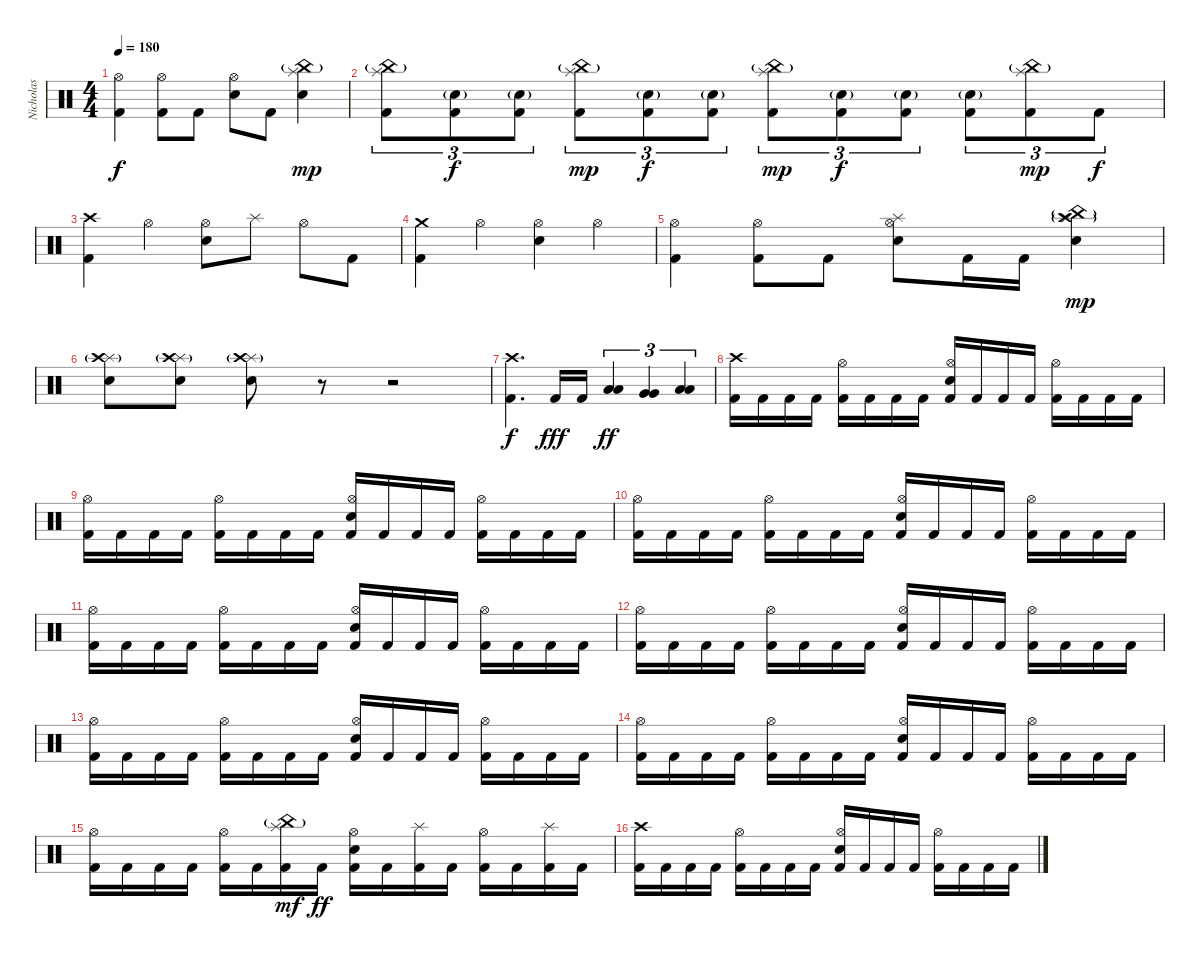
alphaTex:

\track ("Nicholas" "Nicholas") {instrument percussion}
\staff {score}
\articulation defaults
\ts (4 4)
\tempo 180
\clef neutral
\ks c
("Kick (hit) 2" "Hi-Hat (open)").4{dy f} ("Kick (hit) 2" "Hi-Hat (open)").8 "Kick (hit) 2".8 ("Electric Snare (hit)" "Hi-Hat (open)").8 "Kick (hit) 2".8 ("Electric Snare (hit)" "Splash (hit)" "China (hit)"{g}).4{dy mp} |
("Kick (hit) 2" "Splash (hit)" "China (hit)"{g}).8{tu (3 2)} ("Kick (hit) 2" "Electric Snare (hit)"{g}).8{tu (3 2) dy f} ("Kick (hit) 2" "Electric Snare (hit)"{g}).8{tu (3 2)} ("Kick (hit) 2" "Splash (hit)" "China (hit)"{g}).8{tu (3 2) dy mp} ("Kick (hit) 2" "Electric Snare (hit)"{g}).8{tu (3 2) dy f} ("Kick (hit) 2" "Electric Snare (hit)"{g}).8{tu (3 2)} ("Kick (hit) 2" "Splash (hit)" "China (hit)"{g}).8{tu (3 2) dy mp} ("Kick (hit) 2" "Electric Snare (hit)"{g}).8{tu (3 2) dy f} ("Kick (hit) 2" "Electric Snare (hit)"{g}).8{tu (3 2)} ("Kick (hit) 2" "Electric Snare (hit)"{g}).8{tu (3 2)} ("Kick (hit) 2" "Splash (hit)" "China (hit)"{g}).8{tu (3 2) dy mp} "Kick (hit) 2".8{tu (3 2) dy f} |
("Kick (hit) 2" "Crash high (hit)").4 "Hi-Hat (open)".4 ("Electric Snare (hit)" "Hi-Hat (open)").8 "Splash (hit)".8 "Hi-Hat (open)".8 "Kick (hit) 2".8 |
("Kick (hit) 2" "Crash medium (hit)").4 "Hi-Hat (open)".4 ("Electric Snare (hit)" "Hi-Hat (open)").4 "Hi-Hat (open)".4 |
("Kick (hit) 2" "Hi-Hat (open)").4 ("Kick (hit) 2" "Hi-Hat (open)").8 "Kick (hit) 2".8 ("Electric Snare (hit)" "Hi-Hat (open)" "Splash (hit)").8 "Kick (hit) 2".16 "Kick (hit) 2".16 ("Electric Snare (hit)" "Splash (hit)" "China (hit)"{g} "Crash high (hit)"{g}).4{dy mp} |
("Electric Snare (hit)" "Splash (hit)"{g} "Crash high (hit)"{g}).8 ("Electric Snare (hit)" "Splash (hit)"{g} "Crash high (hit)"{g}).8 ("Electric Snare (hit)" "Splash (hit)"{g} "Crash high (hit)"{g}).8 r.8 r.2 |
("Kick (hit) 2" "Crash high (hit)").4{d dy f} "Kick (hit) 2".16{dy fff} "Kick (hit) 2".16 ("Low Tom (hit)" "Low Tom (hit)").4{tu (3 2) dy ff} ("Very Low Tom (hit)" "Very Low Tom (hit)").4{tu (3 2)} ("Low Floor Tom (hit)" "Low Floor Tom (hit)").4{tu (3 2)} |
("Kick (hit) 2" "Crash high (hit)").16 "Kick (hit) 2".16 "Kick (hit) 2".16 "Kick (hit) 2".16 ("Kick (hit) 2" "Hi-Hat (open)").16 "Kick (hit) 2".16 "Kick (hit) 2".16 "Kick (hit) 2".16 ("Kick (hit) 2" "Electric Snare (hit)" "Hi-Hat (open)").16 "Kick (hit) 2".16 "Kick (hit) 2".16 "Kick (hit) 2".16 ("Kick (hit) 2" "Hi-Hat (open)").16 "Kick (hit) 2".16 "Kick (hit) 2".16 "Kick (hit) 2".16 |
("Kick (hit) 2" "Hi-Hat (open)").16 "Kick (hit) 2".16 "Kick (hit) 2".16 "Kick (hit) 2".16 ("Kick (hit) 2" "Hi-Hat (open)").16 "Kick (hit) 2".16 "Kick (hit) 2".16 "Kick (hit) 2".16 ("Kick (hit) 2" "Electric Snare (hit)" "Hi-Hat (open)").16 "Kick (hit) 2".16 "Kick (hit) 2".16 "Kick (hit) 2".16 ("Kick (hit) 2" "Hi-Hat (open)").16 "Kick (hit) 2".16 "Kick (hit) 2".16 "Kick (hit) 2".16 |
("Kick (hit) 2" "Hi-Hat (open)").16 "Kick (hit) 2".16 "Kick (hit) 2".16 "Kick (hit) 2".16 ("Kick (hit) 2" "Hi-Hat (open)").16 "Kick (hit) 2".16 "Kick (hit) 2".16 "Kick (hit) 2".16 ("Kick (hit) 2" "Electric Snare (hit)" "Hi-Hat (open)").16 "Kick (hit) 2".16 "Kick (hit) 2".16 "Kick (hit) 2".16 ("Kick (hit) 2" "Hi-Hat (open)").16 "Kick (hit) 2".16 "Kick (hit) 2".16 "Kick (hit) 2".16 |
("Kick (hit) 2" "Hi-Hat (open)").16 "Kick (hit) 2".16 "Kick (hit) 2".16 "Kick (hit) 2".16 ("Kick (hit) 2" "Hi-Hat (open)").16 "Kick (hit) 2".16 "Kick (hit) 2".16 "Kick (hit) 2".16 ("Kick (hit) 2" "Electric Snare (hit)" "Hi-Hat (open)").16 "Kick (hit) 2".16 "Kick (hit) 2".16 "Kick (hit) 2".16 ("Kick (hit) 2" "Hi-Hat (open)").16 "Kick (hit) 2".16 "Kick (hit) 2".16 "Kick (hit) 2".16 |
("Kick (hit) 2" "Hi-Hat (open)").16 "Kick (hit) 2".16 "Kick (hit) 2".16 "Kick (hit) 2".16 ("Kick (hit) 2" "Hi-Hat (open)").16 "Kick (hit) 2".16 "Kick (hit) 2".16 "Kick (hit) 2".16 ("Kick (hit) 2" "Electric Snare (hit)" "Hi-Hat (open)").16 "Kick (hit) 2".16 "Kick (hit) 2".16 "Kick (hit) 2".16 ("Kick (hit) 2" "Hi-Hat (open)").16 "Kick (hit) 2".16 "Kick (hit) 2".16 "Kick (hit) 2".16 |
("Kick (hit) 2" "Hi-Hat (open)").16 "Kick (hit) 2".16 "Kick (hit) 2".16 "Kick (hit) 2".16 ("Kick (hit) 2" "Hi-Hat (open)").16 "Kick (hit) 2".16 "Kick (hit) 2".16 "Kick (hit) 2".16 ("Kick (hit) 2" "Electric Snare (hit)" "Hi-Hat (open)").16 "Kick (hit) 2".16 "Kick (hit) 2".16 "Kick (hit) 2".16 ("Kick (hit) 2" "Hi-Hat (open)").16 "Kick (hit) 2".16 "Kick (hit) 2".16 "Kick (hit) 2".16 |
("Kick (hit) 2" "Hi-Hat (open)").16 "Kick (hit) 2".16 "Kick (hit) 2".16 "Kick (hit) 2".16 ("Kick (hit) 2" "Hi-Hat (open)").16 "Kick (hit) 2".16 "Kick (hit) 2".16 "Kick (hit) 2".16 ("Kick (hit) 2" "Electric Snare (hit)" "Hi-Hat (open)").16 "Kick (hit) 2".16 "Kick (hit) 2".16 "Kick (hit) 2".16 ("Kick (hit) 2" "Hi-Hat (open)").16 "Kick (hit) 2".16 "Kick (hit) 2".16 "Kick (hit) 2".16 |
("Kick (hit) 2" "Hi-Hat (open)").16 "Kick (hit) 2".16 "Kick (hit) 2".16 "Kick (hit) 2".16 ("Kick (hit) 2" "Hi-Hat (open)").16 "Kick (hit) 2".16 ("Kick (hit) 2" "Splash (hit)" "China (hit)"{g}).16{dy mf} "Kick (hit) 2".16{dy ff} ("Kick (hit) 2" "Electric Snare (hit)" "Hi-Hat (open)").16 "Kick (hit) 2".16 ("Kick (hit) 2" "Splash (hit)").16 "Kick (hit) 2".16 ("Kick (hit) 2" "Hi-Hat (open)").16 "Kick (hit) 2".16 ("Kick (hit) 2" "Splash (hit)").16 "Kick (hit) 2".16 |
("Kick (hit) 2" "Crash high (hit)").16 "Kick (hit) 2".16 "Kick (hit) 2".16 "Kick (hit) 2".16 ("Kick (hit) 2" "Hi-Hat (open)").16 "Kick (hit) 2".16 "Kick (hit) 2".16 "Kick (hit) 2".16 ("Kick (hit) 2" "Electric Snare (hit)" "Hi-Hat (open)").16 "Kick (hit) 2".16 "Kick (hit) 2".16 "Kick (hit) 2".16 ("Kick (hit) 2" "Hi-Hat (open)").16 "Kick (hit) 2".16 "Kick (hit) 2".16 "Kick (hit) 2".16
